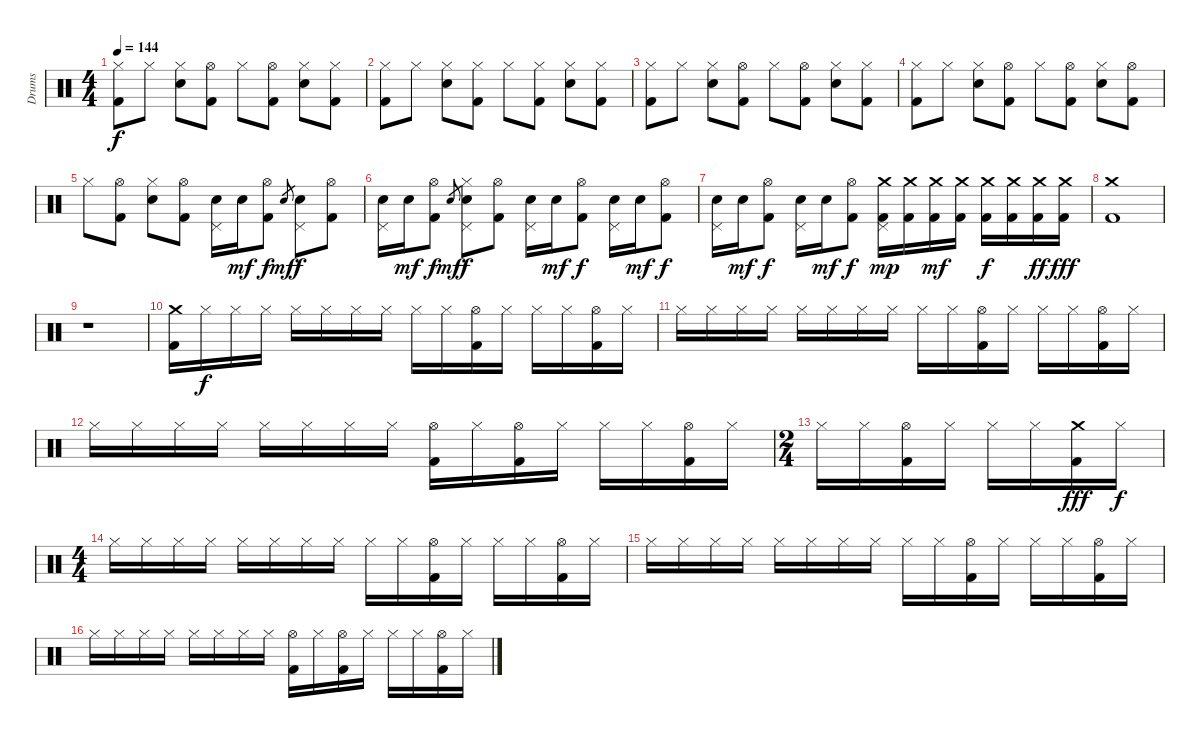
\bracketExtendMode groupsimilarinstruments
\otherSystemsTrackNameOrientation horizontal
\track ("Drumkit" "Drums") {instrument percussion}
\staff {score}
\articulation defaults
\ts (4 4)
\tempo 144
\clef neutral
\ks c
("Hi-Hat (closed)" "Kick (hit) 2").8{dy f beam Down} "Hi-Hat (closed)".8{beam Down} ("Hi-Hat (closed)" "Snare (hit) 2").8{beam Down} ("Hi-Hat (open)" "Kick (hit) 2").8{beam Down} "Hi-Hat (closed)".8{beam Down} ("Hi-Hat (open)" "Kick (hit) 2").8{beam Down} ("Hi-Hat (closed)" "Snare (hit) 2").8{beam Down} ("Hi-Hat (closed)" "Kick (hit) 2").8{beam Down} |
("Hi-Hat (closed)" "Kick (hit) 2").8{beam Down} "Hi-Hat (closed)".8{beam Down} ("Hi-Hat (closed)" "Snare (hit) 2").8{beam Down} ("Hi-Hat (closed)" "Kick (hit) 2").8{beam Down} "Hi-Hat (closed)".8{beam Down} ("Hi-Hat (closed)" "Kick (hit) 2").8{beam Down} ("Hi-Hat (closed)" "Snare (hit) 2").8{beam Down} ("Hi-Hat (closed)" "Kick (hit) 2").8{beam Down} |
("Hi-Hat (closed)" "Kick (hit) 2").8{beam Down} "Hi-Hat (closed)".8{beam Down} ("Hi-Hat (closed)" "Snare (hit) 2").8{beam Down} ("Hi-Hat (open)" "Kick (hit) 2").8{beam Down} "Hi-Hat (closed)".8{beam Down} ("Hi-Hat (open)" "Kick (hit) 2").8{beam Down} ("Hi-Hat (closed)" "Snare (hit) 2").8{beam Down} ("Hi-Hat (closed)" "Kick (hit) 2").8{beam Down} |
("Hi-Hat (closed)" "Kick (hit) 2").8{beam Down} "Hi-Hat (closed)".8{beam Down} ("Hi-Hat (closed)" "Snare (hit) 2").8{beam Down} ("Hi-Hat (open)" "Kick (hit) 2").8{beam Down} "Hi-Hat (closed)".8{beam Down} ("Hi-Hat (open)" "Kick (hit) 2").8{beam Down} ("Hi-Hat (closed)" "Snare (hit) 2").8{beam Down} ("Hi-Hat (open)" "Kick (hit) 2").8{beam Down} |
"Hi-Hat (closed)".8{beam Down} ("Hi-Hat (open)" "Kick (hit) 2").8{beam Down} ("Hi-Hat (closed)" "Snare (hit) 2").8{beam Down} ("Hi-Hat (open)" "Kick (hit) 2").8{beam Down} ("Pedal Hi-Hat (hit)" "Snare (hit) 2").16{beam Down} "Snare (hit) 2".16{dy mf beam Down} ("Hi-Hat (open)" "Kick (hit) 2").8{dy f beam Down} "Snare (hit) 2".8{gr dy mf beam Up} ("Pedal Hi-Hat (hit)" "Snare (hit) 2").8{dy f beam Down} ("Hi-Hat (open)" "Kick (hit) 2").8{beam Down} |
("Pedal Hi-Hat (hit)" "Snare (hit) 2").16{beam Down} "Snare (hit) 2".16{dy mf beam Down} ("Hi-Hat (open)" "Kick (hit) 2").8{dy f beam Down} "Snare (hit) 2".8{gr dy mf beam Up} ("Pedal Hi-Hat (hit)" "Hi-Hat (closed)" "Snare (hit) 2").8{dy f beam Down} ("Hi-Hat (open)" "Kick (hit) 2").8{beam Down} ("Pedal Hi-Hat (hit)" "Snare (hit) 2").16{beam Down} "Snare (hit) 2".16{dy mf beam Down} ("Hi-Hat (open)" "Kick (hit) 2").8{dy f beam Down} ("Pedal Hi-Hat (hit)" "Snare (hit) 2").16{beam Down} "Snare (hit) 2".16{dy mf beam Down} ("Hi-Hat (open)" "Kick (hit) 2").8{dy f beam Down} |
("Pedal Hi-Hat (hit)" "Snare (hit) 2").16{beam Down} "Snare (hit) 2".16{dy mf beam Down} ("Hi-Hat (open)" "Kick (hit) 2").8{dy f beam Down} ("Pedal Hi-Hat (hit)" "Snare (hit) 2").16{beam Down} "Snare (hit) 2".16{dy mf beam Down} ("Hi-Hat (open)" "Kick (hit) 2").8{dy f beam Down} ("Crash medium (hit)" "Pedal Hi-Hat (hit)" "Kick (hit) 2").16{dy mp beam Down} ("Crash medium (hit)" "Kick (hit) 2").16{beam Down} ("Crash medium (hit)" "Kick (hit) 2").16{dy mf beam Down} ("Crash medium (hit)" "Kick (hit) 2").16{beam Down} ("Crash medium (hit)" "Kick (hit) 2").16{dy f beam Down} ("Crash medium (hit)" "Kick (hit) 2").16{beam Down} ("Crash medium (hit)" "Kick (hit) 2").16{dy ff beam Down} ("Crash medium (hit)" "Kick (hit) 2").16{dy fff beam Down} |
("Crash medium (hit)" "Kick (hit) 2").1{beam Down} |
r.1{beam Down} |
("Crash medium (hit)" "Kick (hit) 2").16{beam Down} "Hi-Hat (closed)".16{dy f beam Down} "Hi-Hat (closed)".16{beam Down} "Hi-Hat (closed)".16{beam Down} "Hi-Hat (closed)".16{beam Down} "Hi-Hat (closed)".16{beam Down} "Hi-Hat (closed)".16{beam Down} "Hi-Hat (closed)".16{beam Down} "Hi-Hat (closed)".16{beam Down} "Hi-Hat (closed)".16{beam Down} ("Hi-Hat (open)" "Kick (hit) 2").16{beam Down} "Hi-Hat (closed)".16{beam Down} "Hi-Hat (closed)".16{beam Down} "Hi-Hat (closed)".16{beam Down} ("Hi-Hat (open)" "Kick (hit) 2").16{beam Down} "Hi-Hat (closed)".16{beam Down} |
"Hi-Hat (closed)".16{beam Down} "Hi-Hat (closed)".16{beam Down} "Hi-Hat (closed)".16{beam Down} "Hi-Hat (closed)".16{beam Down} "Hi-Hat (closed)".16{beam Down} "Hi-Hat (closed)".16{beam Down} "Hi-Hat (closed)".16{beam Down} "Hi-Hat (closed)".16{beam Down} "Hi-Hat (closed)".16{beam Down} "Hi-Hat (closed)".16{beam Down} ("Hi-Hat (open)" "Kick (hit) 2").16{beam Down} "Hi-Hat (closed)".16{beam Down} "Hi-Hat (closed)".16{beam Down} "Hi-Hat (closed)".16{beam Down} ("Hi-Hat (open)" "Kick (hit) 2").16{beam Down} "Hi-Hat (closed)".16{beam Down} |
"Hi-Hat (closed)".16{beam Down} "Hi-Hat (closed)".16{beam Down} "Hi-Hat (closed)".16{beam Down} "Hi-Hat (closed)".16{beam Down} "Hi-Hat (closed)".16{beam Down} "Hi-Hat (closed)".16{beam Down} "Hi-Hat (closed)".16{beam Down} "Hi-Hat (closed)".16{beam Down} ("Hi-Hat (open)" "Kick (hit) 2").16{beam Down} "Hi-Hat (closed)".16{beam Down} ("Hi-Hat (open)" "Kick (hit) 2").16{beam Down} "Hi-Hat (closed)".16{beam Down} "Hi-Hat (closed)".16{beam Down} "Hi-Hat (closed)".16{beam Down} ("Hi-Hat (open)" "Kick (hit) 2").16{beam Down} "Hi-Hat (closed)".16{beam Down} |
\ts (2 4)
"Hi-Hat (closed)".16{beam Down} "Hi-Hat (closed)".16{beam Down} ("Hi-Hat (open)" "Kick (hit) 2").16{beam Down} "Hi-Hat (closed)".16{beam Down} "Hi-Hat (closed)".16{beam Down} "Hi-Hat (closed)".16{beam Down} ("Crash medium (hit)" "Kick (hit) 2").16{dy fff beam Down} "Hi-Hat (closed)".16{dy f beam Down} |
\ts (4 4)
"Hi-Hat (closed)".16{beam Down} "Hi-Hat (closed)".16{beam Down} "Hi-Hat (closed)".16{beam Down} "Hi-Hat (closed)".16{beam Down} "Hi-Hat (closed)".16{beam Down} "Hi-Hat (closed)".16{beam Down} "Hi-Hat (closed)".16{beam Down} "Hi-Hat (closed)".16{beam Down} "Hi-Hat (closed)".16{beam Down} "Hi-Hat (closed)".16{beam Down} ("Hi-Hat (open)" "Kick (hit) 2").16{beam Down} "Hi-Hat (closed)".16{beam Down} "Hi-Hat (closed)".16{beam Down} "Hi-Hat (closed)".16{beam Down} ("Hi-Hat (open)" "Kick (hit) 2").16{beam Down} "Hi-Hat (closed)".16{beam Down} |
"Hi-Hat (closed)".16{beam Down} "Hi-Hat (closed)".16{beam Down} "Hi-Hat (closed)".16{beam Down} "Hi-Hat (closed)".16{beam Down} "Hi-Hat (closed)".16{beam Down} "Hi-Hat (closed)".16{beam Down} "Hi-Hat (closed)".16{beam Down} "Hi-Hat (closed)".16{beam Down} "Hi-Hat (closed)".16{beam Down} "Hi-Hat (closed)".16{beam Down} ("Hi-Hat (open)" "Kick (hit) 2").16{beam Down} "Hi-Hat (closed)".16{beam Down} "Hi-Hat (closed)".16{beam Down} "Hi-Hat (closed)".16{beam Down} ("Hi-Hat (open)" "Kick (hit) 2").16{beam Down} "Hi-Hat (closed)".16{beam Down} |
"Hi-Hat (closed)".16{beam Down} "Hi-Hat (closed)".16{beam Down} "Hi-Hat (closed)".16{beam Down} "Hi-Hat (closed)".16{beam Down} "Hi-Hat (closed)".16{beam Down} "Hi-Hat (closed)".16{beam Down} "Hi-Hat (closed)".16{beam Down} "Hi-Hat (closed)".16{beam Down} ("Hi-Hat (open)" "Kick (hit) 2").16{beam Down} "Hi-Hat (closed)".16{beam Down} ("Hi-Hat (open)" "Kick (hit) 2").16{beam Down} "Hi-Hat (closed)".16{beam Down} "Hi-Hat (closed)".16{beam Down} "Hi-Hat (closed)".16{beam Down} ("Hi-Hat (open)" "Kick (hit) 2").16{beam Down} "Hi-Hat (closed)".16{beam Down}
